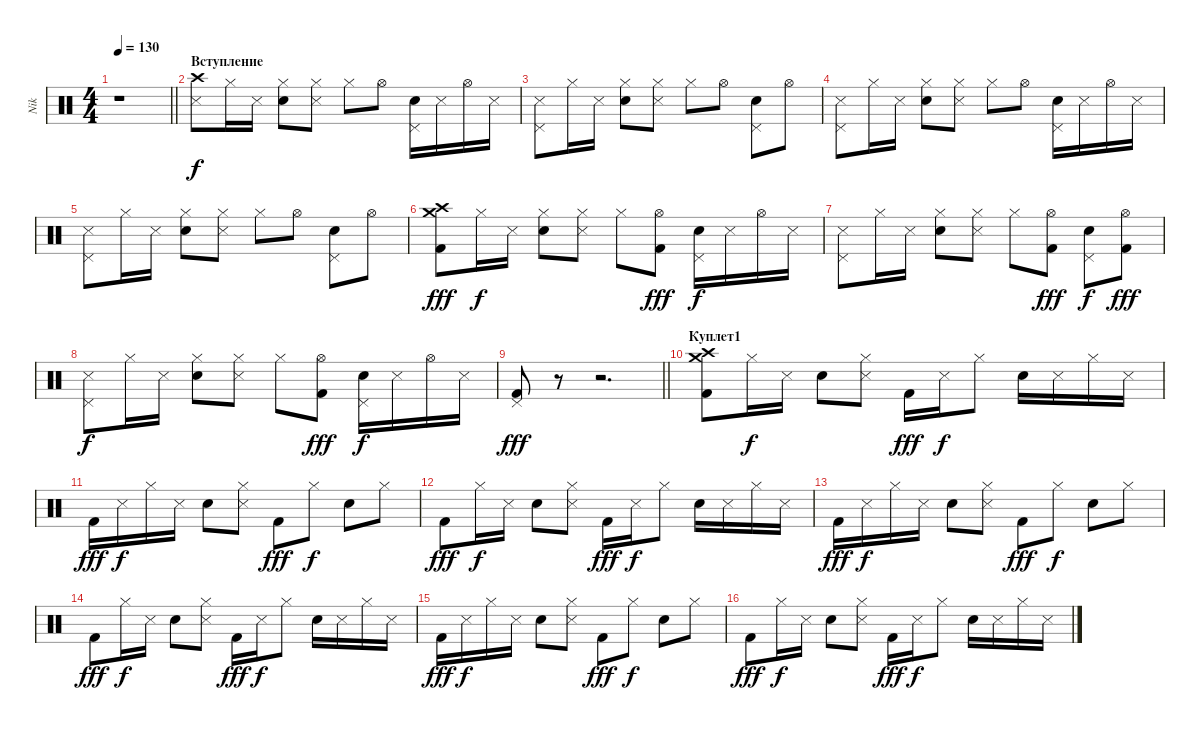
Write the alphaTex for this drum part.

\track ("Nik" "Nik") {instrument percussion}
\staff {score}
\articulation defaults
\ts (4 4)
\tempo 130
\clef neutral
\barLineRight lightlight
\ks c
r.1{dy f} |
\section ("" "Вступление")
("Crash high (hit)" "Snare (side stick) 3").8 "Hi-Hat (closed)".16 "Snare (side stick) 3".16 ("Hi-Hat (closed)" "Electric Snare (hit)").8 ("Hi-Hat (closed)" "Snare (side stick) 3").8 "Hi-Hat (closed)".8 "Hi-Hat (open)".8 ("Pedal Hi-Hat (hit)" "Electric Snare (hit)").16 "Snare (side stick) 3".16 "Hi-Hat (open)".16 "Snare (side stick) 3".16 |
("Pedal Hi-Hat (hit)" "Snare (side stick) 3").8 "Hi-Hat (closed)".16 "Snare (side stick) 3".16 ("Hi-Hat (closed)" "Electric Snare (hit)").8 ("Hi-Hat (closed)" "Snare (side stick) 3").8 "Hi-Hat (closed)".8 "Hi-Hat (open)".8 ("Pedal Hi-Hat (hit)" "Electric Snare (hit)").8 "Hi-Hat (open)".8 |
("Pedal Hi-Hat (hit)" "Snare (side stick) 3").8 "Hi-Hat (closed)".16 "Snare (side stick) 3".16 ("Hi-Hat (closed)" "Electric Snare (hit)").8 ("Hi-Hat (closed)" "Snare (side stick) 3").8 "Hi-Hat (closed)".8 "Hi-Hat (open)".8 ("Pedal Hi-Hat (hit)" "Electric Snare (hit)").16 "Snare (side stick) 3".16 "Hi-Hat (open)".16 "Snare (side stick) 3".16 |
("Pedal Hi-Hat (hit)" "Snare (side stick) 3").8 "Hi-Hat (closed)".16 "Snare (side stick) 3".16 ("Hi-Hat (closed)" "Electric Snare (hit)").8 ("Hi-Hat (closed)" "Snare (side stick) 3").8 "Hi-Hat (closed)".8 "Hi-Hat (open)".8 ("Pedal Hi-Hat (hit)" "Electric Snare (hit)").8 "Hi-Hat (open)".8 |
("Crash high (hit)" "Crash medium (hit)" "Kick (hit) 2").8{dy fff} "Hi-Hat (closed)".16{dy f} "Snare (side stick) 3".16 ("Hi-Hat (closed)" "Electric Snare (hit)").8 ("Hi-Hat (closed)" "Snare (side stick) 3").8 "Hi-Hat (closed)".8 ("Hi-Hat (open)" "Kick (hit) 2").8{dy fff} ("Pedal Hi-Hat (hit)" "Electric Snare (hit)").16{dy f} "Snare (side stick) 3".16 "Hi-Hat (open)".16 "Snare (side stick) 3".16 |
("Pedal Hi-Hat (hit)" "Snare (side stick) 3").8 "Hi-Hat (closed)".16 "Snare (side stick) 3".16 ("Hi-Hat (closed)" "Electric Snare (hit)").8 ("Hi-Hat (closed)" "Snare (side stick) 3").8 "Hi-Hat (closed)".8 ("Hi-Hat (open)" "Kick (hit) 2").8{dy fff} ("Pedal Hi-Hat (hit)" "Electric Snare (hit)").8{dy f} ("Hi-Hat (open)" "Kick (hit) 2").8{dy fff} |
("Pedal Hi-Hat (hit)" "Snare (side stick) 3").8{dy f} "Hi-Hat (closed)".16 "Snare (side stick) 3".16 ("Hi-Hat (closed)" "Electric Snare (hit)").8 ("Hi-Hat (closed)" "Snare (side stick) 3").8 "Hi-Hat (closed)".8 ("Hi-Hat (open)" "Kick (hit) 2").8{dy fff} ("Pedal Hi-Hat (hit)" "Electric Snare (hit)").16{dy f} "Snare (side stick) 3".16 "Hi-Hat (open)".16 "Snare (side stick) 3".16 |
\barLineRight lightlight
("Pedal Hi-Hat (hit)" "Kick (hit) 2").8{dy fff} r.8 r.2{d} |
\section ("" "Куплет1")
("Crash high (hit)" "Crash medium (hit)" "Kick (hit) 2").8 "Hi-Hat (closed)".16{dy f} "Snare (side stick) 3".16 "Electric Snare (hit)".8 ("Hi-Hat (closed)" "Snare (side stick) 3").8 "Kick (hit) 2".16{dy fff} "Snare (side stick) 3".16{dy f} "Hi-Hat (closed)".8 "Electric Snare (hit)".16 "Snare (side stick) 3".16 "Hi-Hat (closed)".16 "Snare (side stick) 3".16 |
"Kick (hit) 2".16{dy fff} "Snare (side stick) 3".16{dy f} "Hi-Hat (closed)".16 "Snare (side stick) 3".16 "Electric Snare (hit)".8 ("Hi-Hat (closed)" "Snare (side stick) 3").8 "Kick (hit) 2".8{dy fff} "Hi-Hat (closed)".8{dy f} "Electric Snare (hit)".8 "Hi-Hat (closed)".8 |
"Kick (hit) 2".8{dy fff} "Hi-Hat (closed)".16{dy f} "Snare (side stick) 3".16 "Electric Snare (hit)".8 ("Hi-Hat (closed)" "Snare (side stick) 3").8 "Kick (hit) 2".16{dy fff} "Snare (side stick) 3".16{dy f} "Hi-Hat (closed)".8 "Electric Snare (hit)".16 "Snare (side stick) 3".16 "Hi-Hat (closed)".16 "Snare (side stick) 3".16 |
"Kick (hit) 2".16{dy fff} "Snare (side stick) 3".16{dy f} "Hi-Hat (closed)".16 "Snare (side stick) 3".16 "Electric Snare (hit)".8 ("Hi-Hat (closed)" "Snare (side stick) 3").8 "Kick (hit) 2".8{dy fff} "Hi-Hat (closed)".8{dy f} "Electric Snare (hit)".8 "Hi-Hat (closed)".8 |
"Kick (hit) 2".8{dy fff} "Hi-Hat (closed)".16{dy f} "Snare (side stick) 3".16 "Electric Snare (hit)".8 ("Hi-Hat (closed)" "Snare (side stick) 3").8 "Kick (hit) 2".16{dy fff} "Snare (side stick) 3".16{dy f} "Hi-Hat (closed)".8 "Electric Snare (hit)".16 "Snare (side stick) 3".16 "Hi-Hat (closed)".16 "Snare (side stick) 3".16 |
"Kick (hit) 2".16{dy fff} "Snare (side stick) 3".16{dy f} "Hi-Hat (closed)".16 "Snare (side stick) 3".16 "Electric Snare (hit)".8 ("Hi-Hat (closed)" "Snare (side stick) 3").8 "Kick (hit) 2".8{dy fff} "Hi-Hat (closed)".8{dy f} "Electric Snare (hit)".8 "Hi-Hat (closed)".8 |
"Kick (hit) 2".8{dy fff} "Hi-Hat (closed)".16{dy f} "Snare (side stick) 3".16 "Electric Snare (hit)".8 ("Hi-Hat (closed)" "Snare (side stick) 3").8 "Kick (hit) 2".16{dy fff} "Snare (side stick) 3".16{dy f} "Hi-Hat (closed)".8 "Electric Snare (hit)".16 "Snare (side stick) 3".16 "Hi-Hat (closed)".16 "Snare (side stick) 3".16
